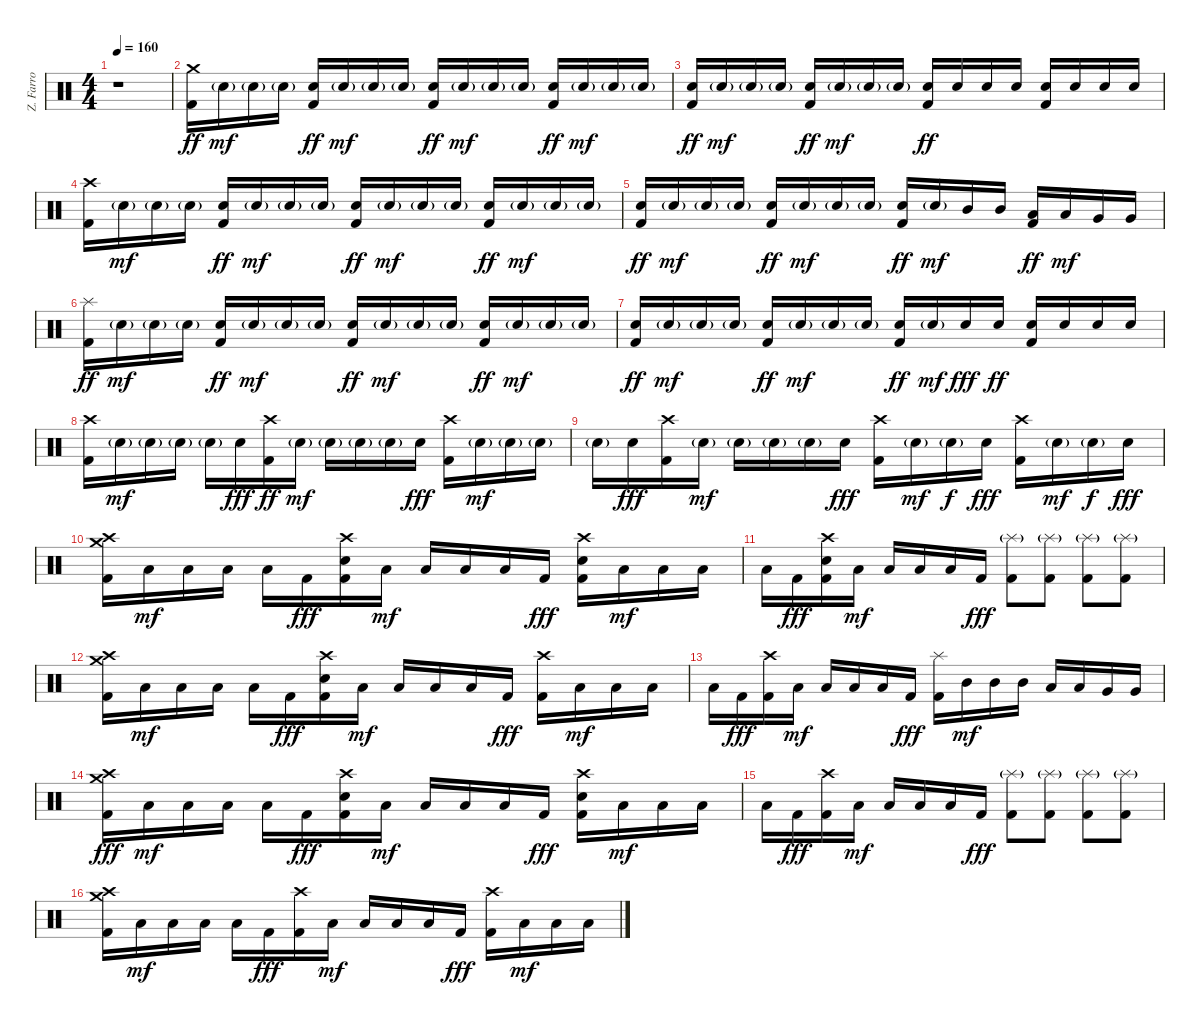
\track ("Z. Farro" "Z. Farro") {instrument percussion}
\staff {score}
\articulation defaults
\ts (4 4)
\tempo 160
\clef neutral
\ks c
r.1{dy fff} |
("Crash medium (hit)" "Kick (hit) 2").16{dy ff} "Electric Snare (hit)"{g}.16{dy mf} "Electric Snare (hit)"{g}.16 "Electric Snare (hit)"{g}.16 ("Electric Snare (hit)" "Kick (hit) 2").16{dy ff} "Electric Snare (hit)"{g}.16{dy mf} "Electric Snare (hit)"{g}.16 "Electric Snare (hit)"{g}.16 ("Electric Snare (hit)" "Kick (hit) 2").16{dy ff} "Electric Snare (hit)"{g}.16{dy mf} "Electric Snare (hit)"{g}.16 "Electric Snare (hit)"{g}.16 ("Electric Snare (hit)" "Kick (hit) 2").16{dy ff} "Electric Snare (hit)"{g}.16{dy mf} "Electric Snare (hit)"{g}.16 "Electric Snare (hit)"{g}.16 |
("Electric Snare (hit)" "Kick (hit) 2").16{dy ff} "Electric Snare (hit)"{g}.16{dy mf} "Electric Snare (hit)"{g}.16 "Electric Snare (hit)"{g}.16 ("Electric Snare (hit)" "Kick (hit) 2").16{dy ff} "Electric Snare (hit)"{g}.16{dy mf} "Electric Snare (hit)"{g}.16 "Electric Snare (hit)"{g}.16 ("Electric Snare (hit)" "Kick (hit) 2").16{dy ff} "Electric Snare (hit)".16 "Electric Snare (hit)".16 "Electric Snare (hit)".16 ("Electric Snare (hit)" "Kick (hit) 2").16 "Electric Snare (hit)".16 "Electric Snare (hit)".16 "Electric Snare (hit)".16 |
("Crash high (hit)" "Kick (hit) 2").16 "Electric Snare (hit)"{g}.16{dy mf} "Electric Snare (hit)"{g}.16 "Electric Snare (hit)"{g}.16 ("Electric Snare (hit)" "Kick (hit) 2").16{dy ff} "Electric Snare (hit)"{g}.16{dy mf} "Electric Snare (hit)"{g}.16 "Electric Snare (hit)"{g}.16 ("Electric Snare (hit)" "Kick (hit) 2").16{dy ff} "Electric Snare (hit)"{g}.16{dy mf} "Electric Snare (hit)"{g}.16 "Electric Snare (hit)"{g}.16 ("Electric Snare (hit)" "Kick (hit) 2").16{dy ff} "Electric Snare (hit)"{g}.16{dy mf} "Electric Snare (hit)"{g}.16 "Electric Snare (hit)"{g}.16 |
("Electric Snare (hit)" "Kick (hit) 2").16{dy ff} "Electric Snare (hit)"{g}.16{dy mf} "Electric Snare (hit)"{g}.16 "Electric Snare (hit)"{g}.16 ("Electric Snare (hit)" "Kick (hit) 2").16{dy ff} "Electric Snare (hit)"{g}.16{dy mf} "Electric Snare (hit)"{g}.16 "Electric Snare (hit)"{g}.16 ("Electric Snare (hit)" "Kick (hit) 2").16{dy ff} "Electric Snare (hit)"{g}.16{dy mf} "Mid Tom (hit)".16 "Mid Tom (hit)".16 ("Low Tom (hit)" "Kick (hit) 2").16{dy ff} "Low Tom (hit)".16{dy mf} "Very Low Tom (hit)".16 "Very Low Tom (hit)".16 |
("Splash (hit)" "Kick (hit) 2").16{dy ff} "Electric Snare (hit)"{g}.16{dy mf} "Electric Snare (hit)"{g}.16 "Electric Snare (hit)"{g}.16 ("Electric Snare (hit)" "Kick (hit) 2").16{dy ff} "Electric Snare (hit)"{g}.16{dy mf} "Electric Snare (hit)"{g}.16 "Electric Snare (hit)"{g}.16 ("Electric Snare (hit)" "Kick (hit) 2").16{dy ff} "Electric Snare (hit)"{g}.16{dy mf} "Electric Snare (hit)"{g}.16 "Electric Snare (hit)"{g}.16 ("Electric Snare (hit)" "Kick (hit) 2").16{dy ff} "Electric Snare (hit)"{g}.16{dy mf} "Electric Snare (hit)"{g}.16 "Electric Snare (hit)"{g}.16 |
("Electric Snare (hit)" "Kick (hit) 2").16{dy ff} "Electric Snare (hit)"{g}.16{dy mf} "Electric Snare (hit)"{g}.16 "Electric Snare (hit)"{g}.16 ("Electric Snare (hit)" "Kick (hit) 2").16{dy ff} "Electric Snare (hit)"{g}.16{dy mf} "Electric Snare (hit)"{g}.16 "Electric Snare (hit)"{g}.16 ("Electric Snare (hit)" "Kick (hit) 2").16{dy ff} "Electric Snare (hit)"{g}.16{dy mf} "Electric Snare (hit)".16{dy fff} "Electric Snare (hit)".16{dy ff} ("Electric Snare (hit)" "Kick (hit) 2").16 "Electric Snare (hit)".16 "Electric Snare (hit)".16 "Electric Snare (hit)".16 |
("Crash high (hit)" "Kick (hit) 2").16 "Electric Snare (hit)"{g}.16{dy mf} "Electric Snare (hit)"{g}.16 "Electric Snare (hit)"{g}.16 "Electric Snare (hit)"{g}.16 "Electric Snare (hit)".16{dy fff} ("Crash high (hit)" "Kick (hit) 2").16{dy ff} "Electric Snare (hit)"{g}.16{dy mf} "Electric Snare (hit)"{g}.16 "Electric Snare (hit)"{g}.16 "Electric Snare (hit)"{g}.16 "Electric Snare (hit)".16{dy fff} ("Crash high (hit)" "Kick (hit) 2").16 "Electric Snare (hit)"{g}.16{dy mf} "Electric Snare (hit)"{g}.16 "Electric Snare (hit)"{g}.16 |
"Electric Snare (hit)"{g}.16 "Electric Snare (hit)".16{dy fff} ("Crash high (hit)" "Kick (hit) 2").16 "Electric Snare (hit)"{g}.16{dy mf} "Electric Snare (hit)"{g}.16 "Electric Snare (hit)"{g}.16 "Electric Snare (hit)"{g}.16 "Electric Snare (hit)".16{dy fff} ("Crash high (hit)" "Kick (hit) 2").16 "Electric Snare (hit)"{g}.16{dy mf} "Electric Snare (hit)"{g}.16{dy f} "Electric Snare (hit)".16{dy fff} ("Crash high (hit)" "Kick (hit) 2").16 "Electric Snare (hit)"{g}.16{dy mf} "Electric Snare (hit)"{g}.16{dy f} "Electric Snare (hit)".16{dy fff} |
("Crash high (hit)" "Crash medium (hit)" "Kick (hit) 2").16 "Low Tom (hit)".16{dy mf} "Low Tom (hit)".16 "Low Tom (hit)".16 "Low Tom (hit)".16 "Kick (hit) 2".16{dy fff} ("Crash high (hit)" "Electric Snare (hit)" "Kick (hit) 2").16 "Low Tom (hit)".16{dy mf} "Low Tom (hit)".16 "Low Tom (hit)".16 "Low Tom (hit)".16 "Kick (hit) 2".16{dy fff} ("Crash high (hit)" "Electric Snare (hit)" "Kick (hit) 2").16 "Low Tom (hit)".16{dy mf} "Low Tom (hit)".16 "Low Tom (hit)".16 |
"Low Tom (hit)".16 "Kick (hit) 2".16{dy fff} ("Crash high (hit)" "Electric Snare (hit)" "Kick (hit) 2").16 "Low Tom (hit)".16{dy mf} "Low Tom (hit)".16 "Low Tom (hit)".16 "Low Tom (hit)".16 "Kick (hit) 2".16{dy fff} ("Splash (hit)"{g} "Kick (hit) 2").8 ("Splash (hit)"{g} "Kick (hit) 2").8 ("Splash (hit)"{g} "Kick (hit) 2").8 ("Splash (hit)"{g} "Kick (hit) 2").8 |
("Crash high (hit)" "Crash medium (hit)" "Kick (hit) 2").16 "Low Tom (hit)".16{dy mf} "Low Tom (hit)".16 "Low Tom (hit)".16 "Low Tom (hit)".16 "Kick (hit) 2".16{dy fff} ("Crash high (hit)" "Electric Snare (hit)" "Kick (hit) 2").16 "Low Tom (hit)".16{dy mf} "Low Tom (hit)".16 "Low Tom (hit)".16 "Low Tom (hit)".16 "Kick (hit) 2".16{dy fff} ("Crash high (hit)" "Kick (hit) 2").16 "Low Tom (hit)".16{dy mf} "Low Tom (hit)".16 "Low Tom (hit)".16 |
"Low Tom (hit)".16 "Kick (hit) 2".16{dy fff} ("Crash high (hit)" "Kick (hit) 2").16 "Low Tom (hit)".16{dy mf} "Low Tom (hit)".16 "Low Tom (hit)".16 "Low Tom (hit)".16 "Kick (hit) 2".16{dy fff} ("Splash (hit)" "Kick (hit) 2").16 "Mid Tom (hit)".16{dy mf} "Mid Tom (hit)".16 "Mid Tom (hit)".16 "Low Tom (hit)".16 "Low Tom (hit)".16 "Very Low Tom (hit)".16 "Very Low Tom (hit)".16 |
("Crash high (hit)" "Crash medium (hit)" "Kick (hit) 2").16{dy fff} "Low Tom (hit)".16{dy mf} "Low Tom (hit)".16 "Low Tom (hit)".16 "Low Tom (hit)".16 "Kick (hit) 2".16{dy fff} ("Crash high (hit)" "Electric Snare (hit)" "Kick (hit) 2").16 "Low Tom (hit)".16{dy mf} "Low Tom (hit)".16 "Low Tom (hit)".16 "Low Tom (hit)".16 "Kick (hit) 2".16{dy fff} ("Crash high (hit)" "Electric Snare (hit)" "Kick (hit) 2").16 "Low Tom (hit)".16{dy mf} "Low Tom (hit)".16 "Low Tom (hit)".16 |
"Low Tom (hit)".16 "Kick (hit) 2".16{dy fff} ("Crash high (hit)" "Kick (hit) 2").16 "Low Tom (hit)".16{dy mf} "Low Tom (hit)".16 "Low Tom (hit)".16 "Low Tom (hit)".16 "Kick (hit) 2".16{dy fff} ("Splash (hit)"{g} "Kick (hit) 2").8 ("Splash (hit)"{g} "Kick (hit) 2").8 ("Splash (hit)"{g} "Kick (hit) 2").8 ("Splash (hit)"{g} "Kick (hit) 2").8 |
("Crash high (hit)" "Crash medium (hit)" "Kick (hit) 2").16 "Low Tom (hit)".16{dy mf} "Low Tom (hit)".16 "Low Tom (hit)".16 "Low Tom (hit)".16 "Kick (hit) 2".16{dy fff} ("Crash high (hit)" "Kick (hit) 2").16 "Low Tom (hit)".16{dy mf} "Low Tom (hit)".16 "Low Tom (hit)".16 "Low Tom (hit)".16 "Kick (hit) 2".16{dy fff} ("Crash high (hit)" "Kick (hit) 2").16 "Low Tom (hit)".16{dy mf} "Low Tom (hit)".16 "Low Tom (hit)".16
